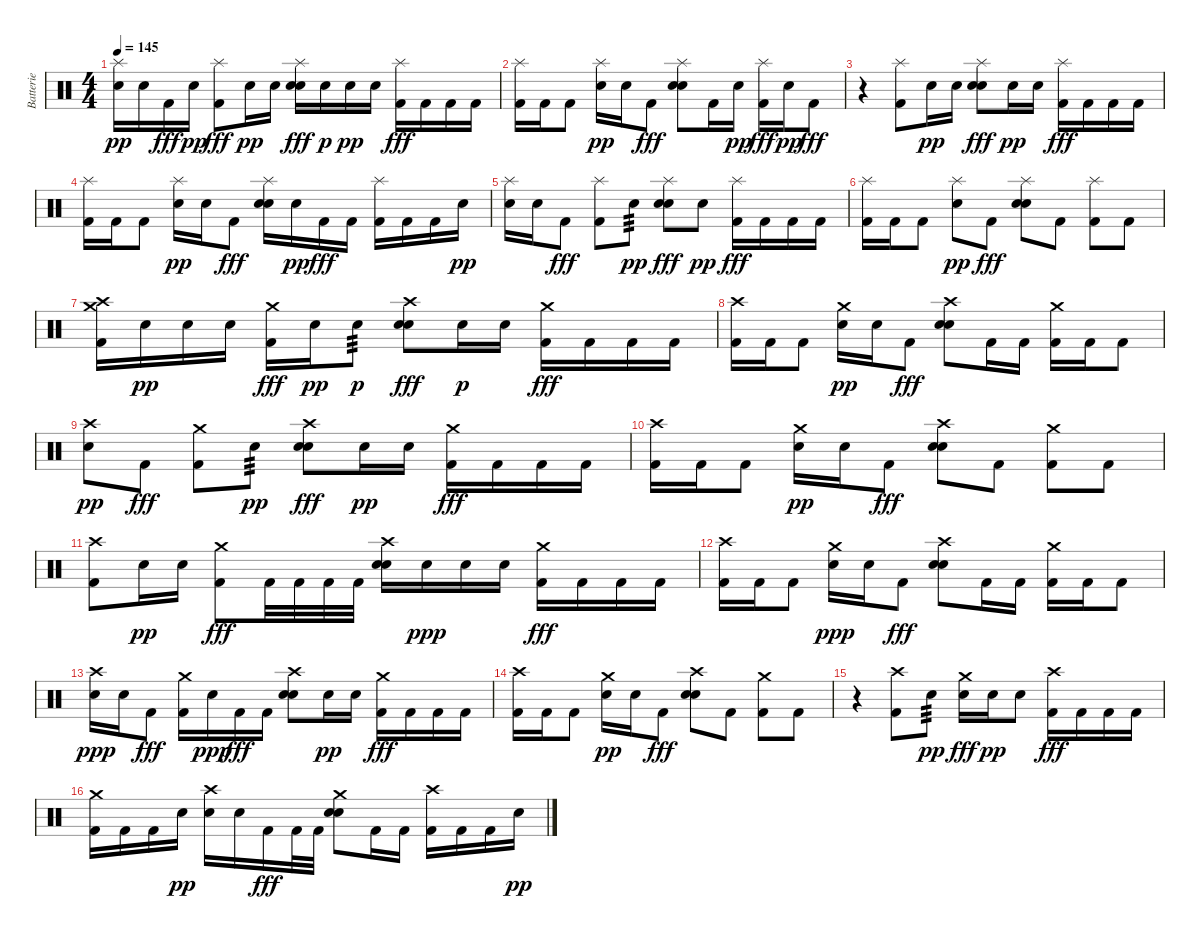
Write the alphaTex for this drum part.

\track ("Batterie" "Batterie") {instrument percussion}
\staff {score}
\articulation defaults
\ts (4 4)
\tempo 145
\clef neutral
\ks c
("Splash (hit)" "Electric Snare (hit)").16{dy pp} "Electric Snare (hit)".16 "Kick (hit) 2".16{dy fff} "Electric Snare (hit)".16{dy pp} ("Splash (hit)" "Kick (hit) 2").8{dy fff} "Electric Snare (hit)".16{dy pp} "Electric Snare (hit)".16 ("Splash (hit)" "Electric Snare (hit)" "Electric Snare (hit)").16{dy fff} "Electric Snare (hit)".16{dy p} "Electric Snare (hit)".16{dy pp} "Electric Snare (hit)".16 ("Splash (hit)" "Kick (hit) 2").16{dy fff} "Kick (hit) 2".16 "Kick (hit) 2".16 "Kick (hit) 2".16 |
("Splash (hit)" "Kick (hit) 2").16 "Kick (hit) 2".16 "Kick (hit) 2".8 ("Splash (hit)" "Electric Snare (hit)").16{dy pp} "Electric Snare (hit)".16 "Kick (hit) 2".8{dy fff} ("Splash (hit)" "Electric Snare (hit)" "Electric Snare (hit)").8 "Kick (hit) 2".16 "Electric Snare (hit)".16{dy pp} ("Splash (hit)" "Kick (hit) 2").16{dy fff} "Electric Snare (hit)".16{dy pp} "Kick (hit) 2".8{dy fff} |
r.4 ("Splash (hit)" "Kick (hit) 2").8 "Electric Snare (hit)".16{dy pp} "Electric Snare (hit)".16 ("Splash (hit)" "Electric Snare (hit)" "Electric Snare (hit)").8{dy fff} "Electric Snare (hit)".16{dy pp} "Electric Snare (hit)".16 ("Splash (hit)" "Kick (hit) 2").16{dy fff} "Kick (hit) 2".16 "Kick (hit) 2".16 "Kick (hit) 2".16 |
("Splash (hit)" "Kick (hit) 2").16 "Kick (hit) 2".16 "Kick (hit) 2".8 ("Splash (hit)" "Electric Snare (hit)").16{dy pp} "Electric Snare (hit)".16 "Kick (hit) 2".8{dy fff} ("Splash (hit)" "Electric Snare (hit)" "Electric Snare (hit)").16 "Electric Snare (hit)".16{dy pp} "Kick (hit) 2".16{dy fff} "Kick (hit) 2".16 ("Splash (hit)" "Kick (hit) 2").16 "Kick (hit) 2".16 "Kick (hit) 2".16 "Electric Snare (hit)".16{dy pp} |
("Splash (hit)" "Electric Snare (hit)").16 "Electric Snare (hit)".16 "Kick (hit) 2".8{dy fff} ("Splash (hit)" "Kick (hit) 2").8 "Electric Snare (hit)".8{tp 3 dy pp} ("Splash (hit)" "Electric Snare (hit)" "Electric Snare (hit)").8{dy fff} "Electric Snare (hit)".8{dy pp} ("Splash (hit)" "Kick (hit) 2").16{dy fff} "Kick (hit) 2".16 "Kick (hit) 2".16 "Kick (hit) 2".16 |
("Splash (hit)" "Kick (hit) 2").16 "Kick (hit) 2".16 "Kick (hit) 2".8 ("Splash (hit)" "Electric Snare (hit)").8{dy pp} "Kick (hit) 2".8{dy fff} ("Splash (hit)" "Electric Snare (hit)" "Electric Snare (hit)").8 "Kick (hit) 2".8 ("Splash (hit)" "Kick (hit) 2").8 "Kick (hit) 2".8 |
("Crash high (hit)" "Crash medium (hit)" "Kick (hit) 2").16 "Electric Snare (hit)".16{dy pp} "Electric Snare (hit)".16 "Electric Snare (hit)".16 ("Crash medium (hit)" "Kick (hit) 2").16{dy fff} "Electric Snare (hit)".16{dy pp} "Electric Snare (hit)".8{tp 3 dy p} ("Crash high (hit)" "Electric Snare (hit)" "Electric Snare (hit)").8{dy fff} "Electric Snare (hit)".16{dy p} "Electric Snare (hit)".16 ("Crash medium (hit)" "Kick (hit) 2").16{dy fff} "Kick (hit) 2".16 "Kick (hit) 2".16 "Kick (hit) 2".16 |
("Crash high (hit)" "Kick (hit) 2").16 "Kick (hit) 2".16 "Kick (hit) 2".8 ("Crash medium (hit)" "Electric Snare (hit)").16{dy pp} "Electric Snare (hit)".16 "Kick (hit) 2".8{dy fff} ("Crash high (hit)" "Electric Snare (hit)" "Electric Snare (hit)").8 "Kick (hit) 2".16 "Kick (hit) 2".16 ("Crash medium (hit)" "Kick (hit) 2").16 "Kick (hit) 2".16 "Kick (hit) 2".8 |
("Crash high (hit)" "Electric Snare (hit)").8{dy pp} "Kick (hit) 2".8{dy fff} ("Crash medium (hit)" "Kick (hit) 2").8 "Electric Snare (hit)".8{tp 3 dy pp} ("Crash high (hit)" "Electric Snare (hit)" "Electric Snare (hit)").8{dy fff} "Electric Snare (hit)".16{dy pp} "Electric Snare (hit)".16 ("Crash medium (hit)" "Kick (hit) 2").16{dy fff} "Kick (hit) 2".16 "Kick (hit) 2".16 "Kick (hit) 2".16 |
("Crash high (hit)" "Kick (hit) 2").16 "Kick (hit) 2".16 "Kick (hit) 2".8 ("Crash medium (hit)" "Electric Snare (hit)").16{dy pp} "Electric Snare (hit)".16 "Kick (hit) 2".8{dy fff} ("Crash high (hit)" "Electric Snare (hit)" "Electric Snare (hit)").8 "Kick (hit) 2".8 ("Crash medium (hit)" "Kick (hit) 2").8 "Kick (hit) 2".8 |
("Crash high (hit)" "Kick (hit) 2").8 "Electric Snare (hit)".16{dy pp} "Electric Snare (hit)".16 ("Crash medium (hit)" "Kick (hit) 2").8{dy fff} "Kick (hit) 2".32 "Kick (hit) 2".32 "Kick (hit) 2".32 "Kick (hit) 2".32 ("Crash high (hit)" "Electric Snare (hit)" "Electric Snare (hit)").16 "Electric Snare (hit)".16{dy ppp} "Electric Snare (hit)".16 "Electric Snare (hit)".16 ("Crash medium (hit)" "Kick (hit) 2").16{dy fff} "Kick (hit) 2".16 "Kick (hit) 2".16 "Kick (hit) 2".16 |
("Crash high (hit)" "Kick (hit) 2").16 "Kick (hit) 2".16 "Kick (hit) 2".8 ("Crash medium (hit)" "Electric Snare (hit)").16{dy ppp} "Electric Snare (hit)".16 "Kick (hit) 2".8{dy fff} ("Crash high (hit)" "Electric Snare (hit)" "Electric Snare (hit)").8 "Kick (hit) 2".16 "Kick (hit) 2".16 ("Crash medium (hit)" "Kick (hit) 2").16 "Kick (hit) 2".16 "Kick (hit) 2".8 |
("Crash high (hit)" "Electric Snare (hit)").16{dy ppp} "Electric Snare (hit)".16 "Kick (hit) 2".8{dy fff} ("Crash medium (hit)" "Kick (hit) 2").16 "Electric Snare (hit)".16{dy ppp} "Kick (hit) 2".16{dy fff} "Kick (hit) 2".16 ("Crash high (hit)" "Electric Snare (hit)" "Electric Snare (hit)").8 "Electric Snare (hit)".16{dy pp} "Electric Snare (hit)".16 ("Crash medium (hit)" "Kick (hit) 2").16{dy fff} "Kick (hit) 2".16 "Kick (hit) 2".16 "Kick (hit) 2".16 |
("Crash high (hit)" "Kick (hit) 2").16 "Kick (hit) 2".16 "Kick (hit) 2".8 ("Crash medium (hit)" "Electric Snare (hit)").16{dy pp} "Electric Snare (hit)".16 "Kick (hit) 2".8{dy fff} ("Crash high (hit)" "Electric Snare (hit)" "Electric Snare (hit)").8 "Kick (hit) 2".8 ("Crash medium (hit)" "Kick (hit) 2").8 "Kick (hit) 2".8 |
r.4 ("Crash high (hit)" "Kick (hit) 2").8 "Electric Snare (hit)".8{tp 3 dy pp} ("Crash medium (hit)" "Electric Snare (hit)").16{dy fff} "Electric Snare (hit)".16{dy pp} "Electric Snare (hit)".8 ("Crash high (hit)" "Kick (hit) 2").16{dy fff} "Kick (hit) 2".16 "Kick (hit) 2".16 "Kick (hit) 2".16 |
("Crash medium (hit)" "Kick (hit) 2").16 "Kick (hit) 2".16 "Kick (hit) 2".16 "Electric Snare (hit)".16{dy pp} ("Crash high (hit)" "Electric Snare (hit)").16 "Electric Snare (hit)".16 "Kick (hit) 2".16{dy fff} "Kick (hit) 2".32 "Kick (hit) 2".32 ("Crash medium (hit)" "Electric Snare (hit)" "Electric Snare (hit)").8 "Kick (hit) 2".16 "Kick (hit) 2".16 ("Crash high (hit)" "Kick (hit) 2").16 "Kick (hit) 2".16 "Kick (hit) 2".16 "Electric Snare (hit)".16{dy pp}
